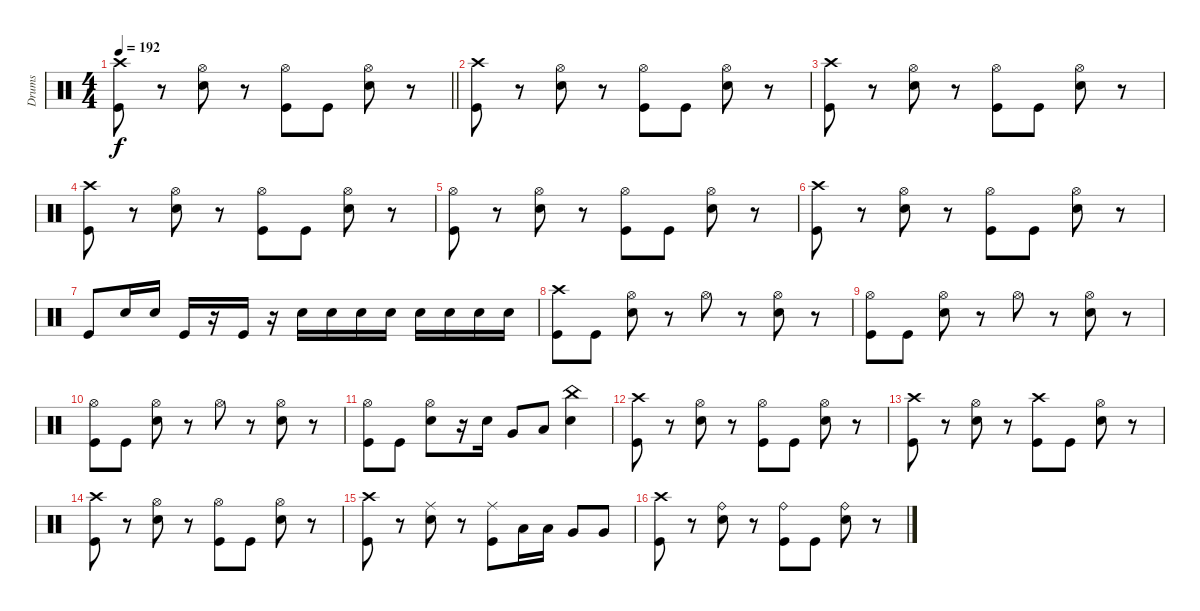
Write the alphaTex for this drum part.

\track ("Drums" "Drums") {instrument percussion}
\staff {score}
\articulation defaults
\ts (4 4)
\tempo 192
\clef neutral
\barLineRight lightlight
\ks c
("Kick (hit)" "Crash high (hit)").8{dy f} r.8 ("Electric Snare (hit)" "Hi-Hat (open)").8 r.8 ("Kick (hit)" "Hi-Hat (open)").8 "Kick (hit)".8 ("Electric Snare (hit)" "Hi-Hat (open)").8 r.8 |
("Kick (hit)" "Crash high (hit)").8 r.8 ("Electric Snare (hit)" "Hi-Hat (open)").8 r.8 ("Kick (hit)" "Hi-Hat (open)").8 "Kick (hit)".8 ("Electric Snare (hit)" "Hi-Hat (open)").8 r.8 |
("Kick (hit)" "Crash high (hit)").8 r.8 ("Electric Snare (hit)" "Hi-Hat (open)").8 r.8 ("Kick (hit)" "Hi-Hat (open)").8 "Kick (hit)".8 ("Electric Snare (hit)" "Hi-Hat (open)").8 r.8 |
("Kick (hit)" "Crash high (hit)").8 r.8 ("Electric Snare (hit)" "Hi-Hat (open)").8 r.8 ("Kick (hit)" "Hi-Hat (open)").8 "Kick (hit)".8 ("Electric Snare (hit)" "Hi-Hat (open)").8 r.8 |
("Kick (hit)" "Hi-Hat (open)").8 r.8 ("Electric Snare (hit)" "Hi-Hat (open)").8 r.8 ("Kick (hit)" "Hi-Hat (open)").8 "Kick (hit)".8 ("Electric Snare (hit)" "Hi-Hat (open)").8 r.8 |
("Kick (hit)" "Crash high (hit)").8 r.8 ("Electric Snare (hit)" "Hi-Hat (open)").8 r.8 ("Kick (hit)" "Hi-Hat (open)").8 "Kick (hit)".8 ("Electric Snare (hit)" "Hi-Hat (open)").8 r.8 |
"Kick (hit)".8 "Electric Snare (hit)".16 "Electric Snare (hit)".16 "Kick (hit)".16 r.16 "Kick (hit)".16 r.16 "Electric Snare (hit)".16 "Electric Snare (hit)".16 "Electric Snare (hit)".16 "Electric Snare (hit)".16 "Electric Snare (hit)".16 "Electric Snare (hit)".16 "Electric Snare (hit)".16 "Electric Snare (hit)".16 |
("Kick (hit)" "Crash high (hit)").8 "Kick (hit)".8 ("Electric Snare (hit)" "Hi-Hat (open)").8 r.8 "Hi-Hat (open)".8 r.8 ("Electric Snare (hit)" "Hi-Hat (open)").8 r.8 |
("Kick (hit)" "Hi-Hat (open)").8 "Kick (hit)".8 ("Electric Snare (hit)" "Hi-Hat (open)").8 r.8 "Hi-Hat (open)".8 r.8 ("Electric Snare (hit)" "Hi-Hat (open)").8 r.8 |
("Kick (hit)" "Hi-Hat (open)").8 "Kick (hit)".8 ("Electric Snare (hit)" "Hi-Hat (open)").8 r.8 "Hi-Hat (open)".8 r.8 ("Electric Snare (hit)" "Hi-Hat (open)").8 r.8 |
("Kick (hit)" "Hi-Hat (open)").8 "Kick (hit)".8 ("Electric Snare (hit)" "Hi-Hat (open)").8 r.16 "Electric Snare (hit)".16 "Very Low Tom (hit)".8 "Low Floor Tom (hit)".8 ("Electric Snare (hit)" "China (hit)").4 |
("Kick (hit)" "Crash high (hit)").8 r.8 ("Electric Snare (hit)" "Hi-Hat (open)").8 r.8 ("Kick (hit)" "Hi-Hat (open)").8 "Kick (hit)".8 ("Electric Snare (hit)" "Hi-Hat (open)").8 r.8 |
("Kick (hit)" "Crash high (hit)").8 r.8 ("Electric Snare (hit)" "Hi-Hat (open)").8 r.8 ("Kick (hit)" "Crash high (hit)").8 "Kick (hit)".8 ("Electric Snare (hit)" "Hi-Hat (open)").8 r.8 |
("Kick (hit)" "Crash high (hit)").8 r.8 ("Electric Snare (hit)" "Hi-Hat (open)").8 r.8 ("Kick (hit)" "Hi-Hat (open)").8 "Kick (hit)".8 ("Electric Snare (hit)" "Hi-Hat (open)").8 r.8 |
("Kick (hit)" "Crash high (hit)").8 r.8 ("Electric Snare (hit)" "Ride (middle)").8 r.8 ("Kick (hit)" "Ride (middle)").8 "Low Tom (hit)".16 "Low Tom (hit)".16 "Very Low Tom (hit)".8 "Very Low Tom (hit)".8 |
("Kick (hit)" "Crash high (hit)").8 r.8 ("Electric Snare (hit)" "Ride (bell)").8 r.8 ("Kick (hit)" "Ride (bell)").8 "Kick (hit)".8 ("Electric Snare (hit)" "Ride (bell)").8 r.8
